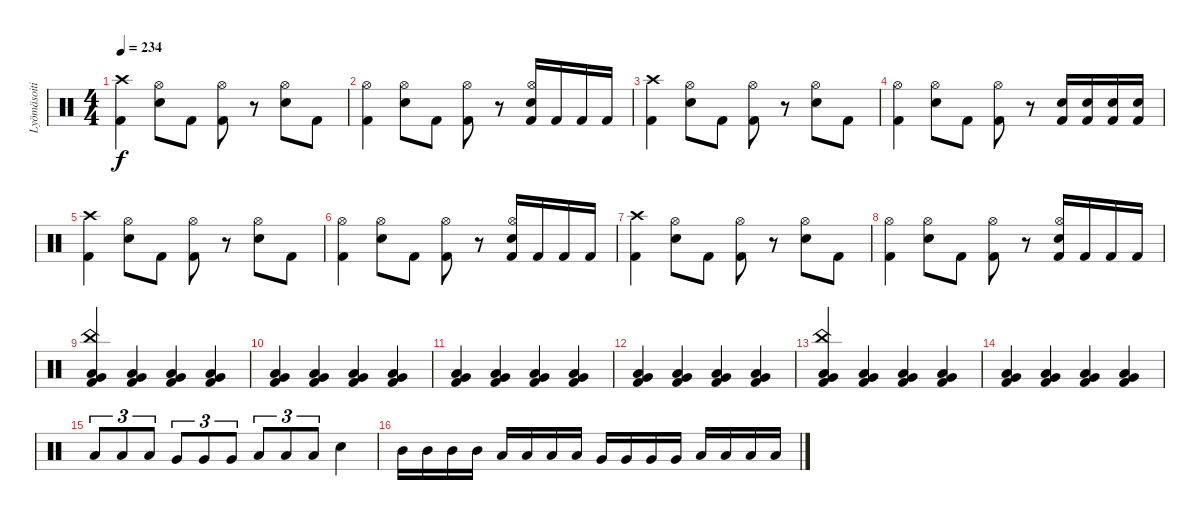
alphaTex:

\track ("Lyömäsoitin" "Lyömäsoiti") {instrument percussion}
\staff {score}
\articulation defaults
\ts (4 4)
\tempo 234
\clef neutral
\ks c
("Crash high (hit)" "Kick (hit) 2").4{dy f} ("Hi-Hat (open)" "Electric Snare (hit)").8 "Kick (hit) 2".8 ("Hi-Hat (open)" "Kick (hit) 2").8 r.8 ("Hi-Hat (open)" "Electric Snare (hit)").8 "Kick (hit) 2".8 |
("Hi-Hat (open)" "Kick (hit) 2").4 ("Hi-Hat (open)" "Electric Snare (hit)").8 "Kick (hit) 2".8 ("Hi-Hat (open)" "Kick (hit) 2").8 r.8 ("Hi-Hat (open)" "Electric Snare (hit)" "Kick (hit) 2").16 "Kick (hit) 2".16 "Kick (hit) 2".16 "Kick (hit) 2".16 |
("Crash high (hit)" "Kick (hit) 2").4 ("Hi-Hat (open)" "Electric Snare (hit)").8 "Kick (hit) 2".8 ("Hi-Hat (open)" "Kick (hit) 2").8 r.8 ("Hi-Hat (open)" "Electric Snare (hit)").8 "Kick (hit) 2".8 |
("Hi-Hat (open)" "Kick (hit) 2").4 ("Hi-Hat (open)" "Electric Snare (hit)").8 "Kick (hit) 2".8 ("Hi-Hat (open)" "Kick (hit) 2").8 r.8 ("Snare (hit) 2" "Kick (hit) 2").16 ("Snare (hit) 2" "Kick (hit) 2").16 ("Snare (hit) 2" "Kick (hit) 2").16 ("Snare (hit) 2" "Kick (hit) 2").16 |
("Crash high (hit)" "Kick (hit) 2").4 ("Hi-Hat (open)" "Electric Snare (hit)").8 "Kick (hit) 2".8 ("Hi-Hat (open)" "Kick (hit) 2").8 r.8 ("Hi-Hat (open)" "Electric Snare (hit)").8 "Kick (hit) 2".8 |
("Hi-Hat (open)" "Kick (hit) 2").4 ("Hi-Hat (open)" "Electric Snare (hit)").8 "Kick (hit) 2".8 ("Hi-Hat (open)" "Kick (hit) 2").8 r.8 ("Hi-Hat (open)" "Electric Snare (hit)" "Kick (hit) 2").16 "Kick (hit) 2".16 "Kick (hit) 2".16 "Kick (hit) 2".16 |
("Crash high (hit)" "Kick (hit) 2").4 ("Hi-Hat (open)" "Electric Snare (hit)").8 "Kick (hit) 2".8 ("Hi-Hat (open)" "Kick (hit) 2").8 r.8 ("Hi-Hat (open)" "Electric Snare (hit)").8 "Kick (hit) 2".8 |
("Hi-Hat (open)" "Kick (hit) 2").4 ("Hi-Hat (open)" "Electric Snare (hit)").8 "Kick (hit) 2".8 ("Hi-Hat (open)" "Kick (hit) 2").8 r.8 ("Hi-Hat (open)" "Electric Snare (hit)" "Kick (hit) 2").16 "Kick (hit) 2".16 "Kick (hit) 2".16 "Kick (hit) 2".16 |
("China (hit)" "Low Tom (hit)" "Very Low Tom (hit)" "Kick (hit) 2").4 ("Low Tom (hit)" "Very Low Tom (hit)" "Kick (hit) 2").4 ("Low Tom (hit)" "Very Low Tom (hit)" "Kick (hit) 2").4 ("Low Tom (hit)" "Very Low Tom (hit)" "Kick (hit) 2").4 |
("Low Tom (hit)" "Very Low Tom (hit)" "Kick (hit) 2").4 ("Low Tom (hit)" "Very Low Tom (hit)" "Kick (hit) 2").4 ("Low Tom (hit)" "Very Low Tom (hit)" "Kick (hit) 2").4 ("Low Tom (hit)" "Very Low Tom (hit)" "Kick (hit) 2").4 |
("Low Tom (hit)" "Very Low Tom (hit)" "Kick (hit) 2").4 ("Low Tom (hit)" "Very Low Tom (hit)" "Kick (hit) 2").4 ("Low Tom (hit)" "Very Low Tom (hit)" "Kick (hit) 2").4 ("Low Tom (hit)" "Very Low Tom (hit)" "Kick (hit) 2").4 |
("Low Tom (hit)" "Very Low Tom (hit)" "Kick (hit) 2").4 ("Low Tom (hit)" "Very Low Tom (hit)" "Kick (hit) 2").4 ("Low Tom (hit)" "Very Low Tom (hit)" "Kick (hit) 2").4 ("Low Tom (hit)" "Very Low Tom (hit)" "Kick (hit) 2").4 |
("China (hit)" "Low Tom (hit)" "Very Low Tom (hit)" "Kick (hit) 2").4 ("Low Tom (hit)" "Very Low Tom (hit)" "Kick (hit) 2").4 ("Low Tom (hit)" "Very Low Tom (hit)" "Kick (hit) 2").4 ("Low Tom (hit)" "Very Low Tom (hit)" "Kick (hit) 2").4 |
("Low Tom (hit)" "Very Low Tom (hit)" "Kick (hit) 2").4 ("Low Tom (hit)" "Very Low Tom (hit)" "Kick (hit) 2").4 ("Low Tom (hit)" "Very Low Tom (hit)" "Kick (hit) 2").4 ("Low Tom (hit)" "Very Low Tom (hit)" "Kick (hit) 2").4 |
"Low Tom (hit)".8{tu (3 2)} "Low Tom (hit)".8{tu (3 2)} "Low Tom (hit)".8{tu (3 2)} "Very Low Tom (hit)".8{tu (3 2)} "Very Low Tom (hit)".8{tu (3 2)} "Very Low Tom (hit)".8{tu (3 2)} "Low Tom (hit)".8{tu (3 2)} "Low Tom (hit)".8{tu (3 2)} "Low Tom (hit)".8{tu (3 2)} "Electric Snare (hit)".4 |
"Mid Tom (hit)".16 "Mid Tom (hit)".16 "Mid Tom (hit)".16 "Mid Tom (hit)".16 "Low Tom (hit)".16 "Low Tom (hit)".16 "Low Tom (hit)".16 "Low Tom (hit)".16 "Very Low Tom (hit)".16 "Very Low Tom (hit)".16 "Very Low Tom (hit)".16 "Very Low Tom (hit)".16 "Low Floor Tom (hit)".16 "Low Floor Tom (hit)".16 "Low Floor Tom (hit)".16 "Low Floor Tom (hit)".16
